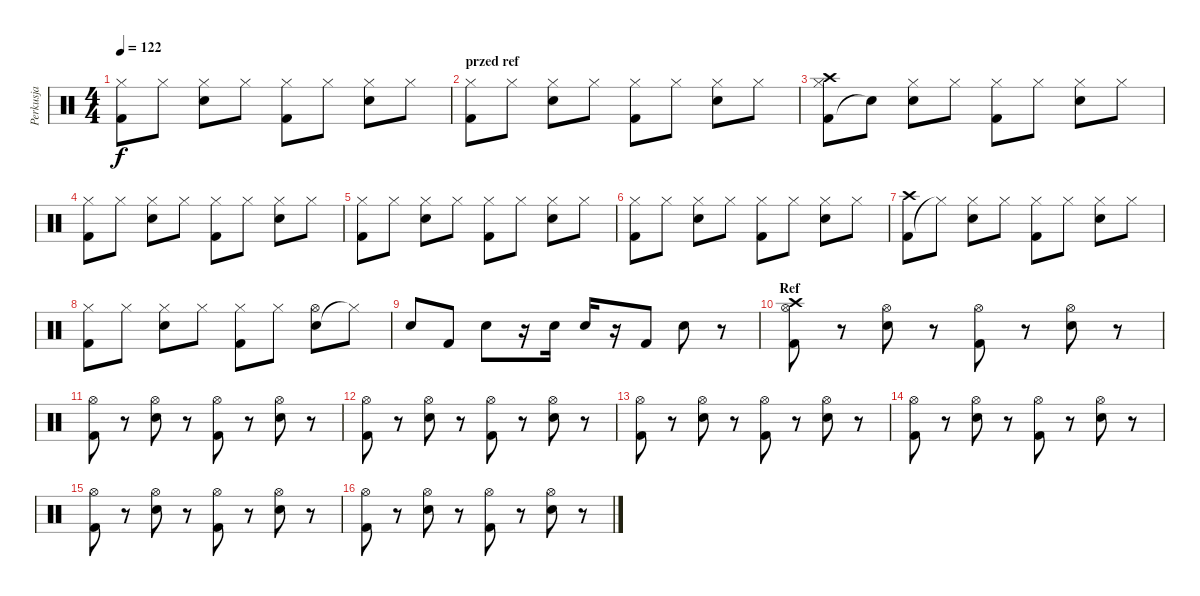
\track ("Perkusja" "Perkusja") {instrument percussion}
\staff {score}
\articulation defaults
\ts (4 4)
\tempo 122
\clef neutral
\ks c
("Kick (hit) 2" "Hi-Hat (closed)").8{dy f} "Hi-Hat (closed)".8 ("Snare (hit) 2" "Hi-Hat (closed)").8 "Hi-Hat (closed)".8 ("Kick (hit) 2" "Hi-Hat (closed)").8 "Hi-Hat (closed)".8 ("Snare (hit) 2" "Hi-Hat (closed)").8 "Hi-Hat (closed)".8 |
\section ("" "przed ref")
("Kick (hit) 2" "Hi-Hat (closed)").8 "Hi-Hat (closed)".8 ("Snare (hit) 2" "Hi-Hat (closed)").8 "Hi-Hat (closed)".8 ("Kick (hit) 2" "Hi-Hat (closed)").8 "Hi-Hat (closed)".8 ("Snare (hit) 2" "Hi-Hat (closed)").8 "Hi-Hat (closed)".8 |
("Kick (hit) 2" "Hi-Hat (closed)" "Crash high (hit)").8 "Snare (hit)"{t}.8 ("Snare (hit) 2" "Hi-Hat (closed)").8 "Hi-Hat (closed)".8 ("Kick (hit) 2" "Hi-Hat (closed)").8 "Hi-Hat (closed)".8 ("Snare (hit) 2" "Hi-Hat (closed)").8 "Hi-Hat (closed)".8 |
("Kick (hit) 2" "Hi-Hat (closed)").8 "Hi-Hat (closed)".8 ("Snare (hit) 2" "Hi-Hat (closed)").8 "Hi-Hat (closed)".8 ("Kick (hit) 2" "Hi-Hat (closed)").8 "Hi-Hat (closed)".8 ("Snare (hit) 2" "Hi-Hat (closed)").8 "Hi-Hat (closed)".8 |
("Kick (hit) 2" "Hi-Hat (closed)").8 "Hi-Hat (closed)".8 ("Snare (hit) 2" "Hi-Hat (closed)").8 "Hi-Hat (closed)".8 ("Kick (hit) 2" "Hi-Hat (closed)").8 "Hi-Hat (closed)".8 ("Snare (hit) 2" "Hi-Hat (closed)").8 "Hi-Hat (closed)".8 |
("Kick (hit) 2" "Hi-Hat (closed)").8 "Hi-Hat (closed)".8 ("Snare (hit) 2" "Hi-Hat (closed)").8 "Hi-Hat (closed)".8 ("Kick (hit) 2" "Hi-Hat (closed)").8 "Hi-Hat (closed)".8 ("Snare (hit) 2" "Hi-Hat (closed)").8 "Hi-Hat (closed)".8 |
("Kick (hit) 2" "Crash high (hit)").8 "Hi-Hat (closed)"{t}.8 ("Snare (hit) 2" "Hi-Hat (closed)").8 "Hi-Hat (closed)".8 ("Kick (hit) 2" "Hi-Hat (closed)").8 "Hi-Hat (closed)".8 ("Snare (hit) 2" "Hi-Hat (closed)").8 "Hi-Hat (closed)".8 |
("Kick (hit) 2" "Hi-Hat (closed)").8 "Hi-Hat (closed)".8 ("Snare (hit) 2" "Hi-Hat (closed)").8 "Hi-Hat (closed)".8 ("Kick (hit) 2" "Hi-Hat (closed)").8 "Hi-Hat (closed)".8 ("Snare (hit) 2" "Hi-Hat (open)").8 "Hi-Hat (closed)"{t}.8 |
"Snare (hit) 2".8 "Kick (hit) 2".8 "Snare (hit) 2".8 r.16 "Snare (hit) 2".16 "Snare (hit) 2".16 r.16 "Kick (hit) 2".8 "Snare (hit) 2".8 r.8 |
\section ("" "Ref")
("Kick (hit) 2" "Hi-Hat (open)" "Crash high (hit)").8 r.8 ("Snare (hit) 2" "Hi-Hat (open)").8 r.8 ("Kick (hit) 2" "Hi-Hat (open)").8 r.8 ("Snare (hit) 2" "Hi-Hat (open)").8 r.8 |
("Kick (hit) 2" "Hi-Hat (open)").8 r.8 ("Snare (hit) 2" "Hi-Hat (open)").8 r.8 ("Kick (hit) 2" "Hi-Hat (open)").8 r.8 ("Snare (hit) 2" "Hi-Hat (open)").8 r.8 |
("Kick (hit) 2" "Hi-Hat (open)").8 r.8 ("Snare (hit) 2" "Hi-Hat (open)").8 r.8 ("Kick (hit) 2" "Hi-Hat (open)").8 r.8 ("Snare (hit) 2" "Hi-Hat (open)").8 r.8 |
("Kick (hit) 2" "Hi-Hat (open)").8 r.8 ("Snare (hit) 2" "Hi-Hat (open)").8 r.8 ("Kick (hit) 2" "Hi-Hat (open)").8 r.8 ("Snare (hit) 2" "Hi-Hat (open)").8 r.8 |
("Kick (hit) 2" "Hi-Hat (open)").8 r.8 ("Snare (hit) 2" "Hi-Hat (open)").8 r.8 ("Kick (hit) 2" "Hi-Hat (open)").8 r.8 ("Snare (hit) 2" "Hi-Hat (open)").8 r.8 |
("Kick (hit) 2" "Hi-Hat (open)").8 r.8 ("Snare (hit) 2" "Hi-Hat (open)").8 r.8 ("Kick (hit) 2" "Hi-Hat (open)").8 r.8 ("Snare (hit) 2" "Hi-Hat (open)").8 r.8 |
("Kick (hit) 2" "Hi-Hat (open)").8 r.8 ("Snare (hit) 2" "Hi-Hat (open)").8 r.8 ("Kick (hit) 2" "Hi-Hat (open)").8 r.8 ("Snare (hit) 2" "Hi-Hat (open)").8 r.8
